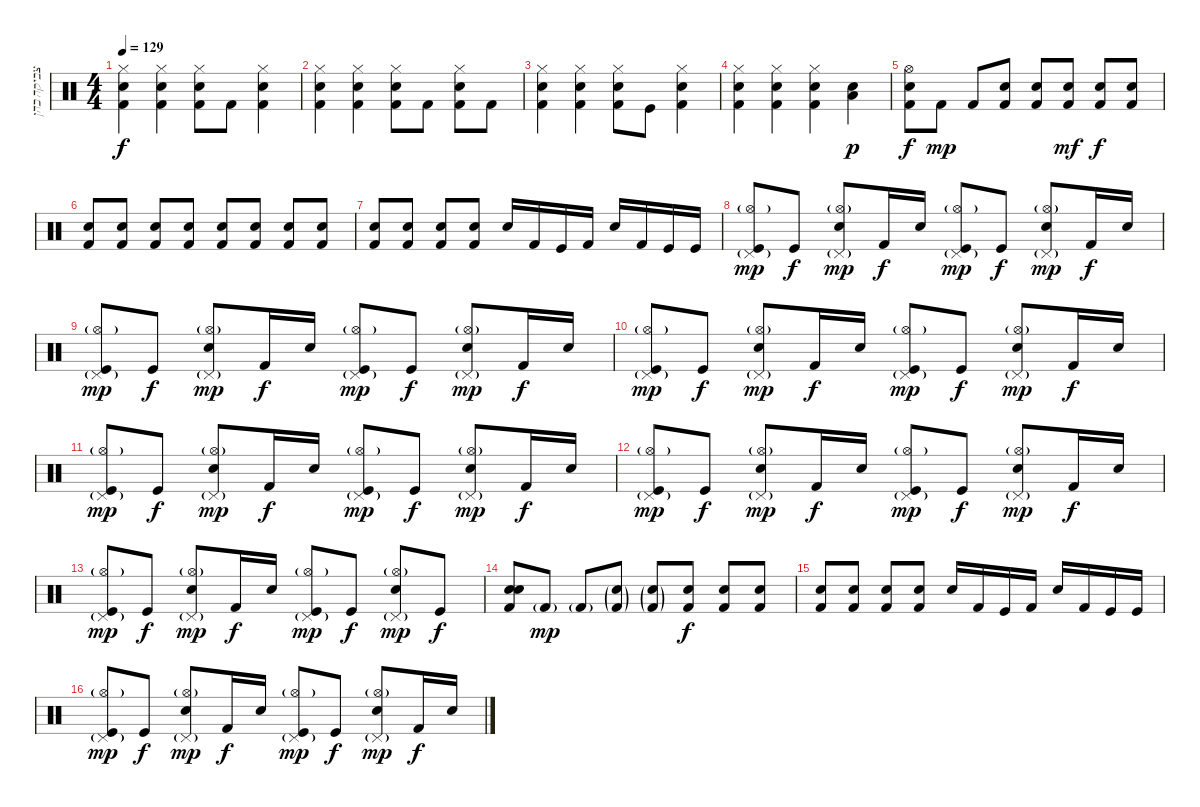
\track ("צביקה כהן - תופים" "צביקה כהן ") {instrument percussion}
\staff {score}
\articulation defaults
\ts (4 4)
\tempo 129
\clef neutral
\ks c
("Hi-Hat (closed)" "Electric Snare (hit)" "Kick (hit) 2").4{dy f} ("Hi-Hat (closed)" "Electric Snare (hit)" "Kick (hit) 2").4 ("Hi-Hat (closed)" "Electric Snare (hit)" "Kick (hit) 2").8 "Kick (hit) 2".8 ("Hi-Hat (closed)" "Electric Snare (hit)" "Kick (hit) 2").4 |
("Hi-Hat (closed)" "Electric Snare (hit)" "Kick (hit) 2").4 ("Hi-Hat (closed)" "Electric Snare (hit)" "Kick (hit) 2").4 ("Hi-Hat (closed)" "Electric Snare (hit)" "Kick (hit) 2").8 "Kick (hit) 2".8 ("Hi-Hat (closed)" "Electric Snare (hit)" "Kick (hit) 2").8 "Kick (hit) 2".8 |
("Hi-Hat (closed)" "Electric Snare (hit)" "Kick (hit) 2").4 ("Hi-Hat (closed)" "Electric Snare (hit)" "Kick (hit) 2").4 ("Hi-Hat (closed)" "Electric Snare (hit)" "Kick (hit) 2").8 "Kick (hit)".8 ("Hi-Hat (closed)" "Electric Snare (hit)" "Kick (hit) 2").4 |
("Hi-Hat (closed)" "Electric Snare (hit)" "Kick (hit) 2").4 ("Hi-Hat (closed)" "Electric Snare (hit)" "Kick (hit) 2").4 ("Hi-Hat (closed)" "Electric Snare (hit)" "Kick (hit) 2").4 ("Low Tom (hit)" "Electric Snare (hit)").4{dy p} |
("Electric Snare (hit)" "Hi-Hat (open)" "Kick (hit) 2").8{dy f} "Kick (hit) 2".8{dy mp} "Kick (hit) 2".8 ("Electric Snare (hit)" "Kick (hit) 2").8 ("Electric Snare (hit)" "Kick (hit) 2").8 ("Electric Snare (hit)" "Kick (hit) 2").8{dy mf} ("Electric Snare (hit)" "Kick (hit) 2").8{dy f} ("Electric Snare (hit)" "Kick (hit) 2").8 |
("Electric Snare (hit)" "Kick (hit) 2").8 ("Electric Snare (hit)" "Kick (hit) 2").8 ("Electric Snare (hit)" "Kick (hit) 2").8 ("Electric Snare (hit)" "Kick (hit) 2").8 ("Electric Snare (hit)" "Kick (hit) 2").8 ("Electric Snare (hit)" "Kick (hit) 2").8 ("Electric Snare (hit)" "Kick (hit) 2").8 ("Electric Snare (hit)" "Kick (hit) 2").8 |
("Electric Snare (hit)" "Kick (hit) 2").8 ("Electric Snare (hit)" "Kick (hit) 2").8 ("Electric Snare (hit)" "Kick (hit) 2").8 ("Electric Snare (hit)" "Kick (hit) 2").8 "Electric Snare (hit)".16 "Kick (hit) 2".16 "Kick (hit)".16 "Kick (hit) 2".16 "Electric Snare (hit)".16 "Kick (hit) 2".16 "Kick (hit)".16 "Kick (hit)".16 |
("Hi-Hat (open)"{g} "Kick (hit)" "Pedal Hi-Hat (hit)"{g}).8{dy mp} "Kick (hit)".8{dy f} ("Hi-Hat (open)"{g} "Electric Snare (hit)" "Pedal Hi-Hat (hit)"{g}).8{dy mp} "Kick (hit) 2".16{dy f} "Electric Snare (hit)".16 ("Hi-Hat (open)"{g} "Kick (hit)" "Pedal Hi-Hat (hit)"{g}).8{dy mp} "Kick (hit)".8{dy f} ("Hi-Hat (open)"{g} "Electric Snare (hit)" "Pedal Hi-Hat (hit)"{g}).8{dy mp} "Kick (hit) 2".16{dy f} "Electric Snare (hit)".16 |
("Hi-Hat (open)"{g} "Kick (hit)" "Pedal Hi-Hat (hit)"{g}).8{dy mp} "Kick (hit)".8{dy f} ("Hi-Hat (open)"{g} "Electric Snare (hit)" "Pedal Hi-Hat (hit)"{g}).8{dy mp} "Kick (hit) 2".16{dy f} "Electric Snare (hit)".16 ("Hi-Hat (open)"{g} "Kick (hit)" "Pedal Hi-Hat (hit)"{g}).8{dy mp} "Kick (hit)".8{dy f} ("Hi-Hat (open)"{g} "Electric Snare (hit)" "Pedal Hi-Hat (hit)"{g}).8{dy mp} "Kick (hit) 2".16{dy f} "Electric Snare (hit)".16 |
("Hi-Hat (open)"{g} "Kick (hit)" "Pedal Hi-Hat (hit)"{g}).8{dy mp} "Kick (hit)".8{dy f} ("Hi-Hat (open)"{g} "Electric Snare (hit)" "Pedal Hi-Hat (hit)"{g}).8{dy mp} "Kick (hit) 2".16{dy f} "Electric Snare (hit)".16 ("Hi-Hat (open)"{g} "Kick (hit)" "Pedal Hi-Hat (hit)"{g}).8{dy mp} "Kick (hit)".8{dy f} ("Hi-Hat (open)"{g} "Electric Snare (hit)" "Pedal Hi-Hat (hit)"{g}).8{dy mp} "Kick (hit) 2".16{dy f} "Electric Snare (hit)".16 |
("Hi-Hat (open)"{g} "Kick (hit)" "Pedal Hi-Hat (hit)"{g}).8{dy mp} "Kick (hit)".8{dy f} ("Hi-Hat (open)"{g} "Electric Snare (hit)" "Pedal Hi-Hat (hit)"{g}).8{dy mp} "Kick (hit) 2".16{dy f} "Electric Snare (hit)".16 ("Hi-Hat (open)"{g} "Kick (hit)" "Pedal Hi-Hat (hit)"{g}).8{dy mp} "Kick (hit)".8{dy f} ("Hi-Hat (open)"{g} "Electric Snare (hit)" "Pedal Hi-Hat (hit)"{g}).8{dy mp} "Kick (hit) 2".16{dy f} "Electric Snare (hit)".16 |
("Hi-Hat (open)"{g} "Kick (hit)" "Pedal Hi-Hat (hit)"{g}).8{dy mp} "Kick (hit)".8{dy f} ("Hi-Hat (open)"{g} "Electric Snare (hit)" "Pedal Hi-Hat (hit)"{g}).8{dy mp} "Kick (hit) 2".16{dy f} "Electric Snare (hit)".16 ("Hi-Hat (open)"{g} "Kick (hit)" "Pedal Hi-Hat (hit)"{g}).8{dy mp} "Kick (hit)".8{dy f} ("Hi-Hat (open)"{g} "Electric Snare (hit)" "Pedal Hi-Hat (hit)"{g}).8{dy mp} "Kick (hit) 2".16{dy f} "Electric Snare (hit)".16 |
("Hi-Hat (open)"{g} "Kick (hit)" "Pedal Hi-Hat (hit)"{g}).8{dy mp} "Kick (hit)".8{dy f} ("Hi-Hat (open)"{g} "Electric Snare (hit)" "Pedal Hi-Hat (hit)"{g}).8{dy mp} "Kick (hit) 2".16{dy f} "Electric Snare (hit)".16 ("Hi-Hat (open)"{g} "Kick (hit)" "Pedal Hi-Hat (hit)"{g}).8{dy mp} "Kick (hit)".8{dy f} ("Hi-Hat (open)"{g} "Electric Snare (hit)" "Pedal Hi-Hat (hit)"{g}).8{dy mp} "Kick (hit)".8{dy f} |
("Electric Snare (hit)" "Snare (hit) 2" "Kick (hit) 2").8 "Kick (hit) 2"{g}.8{dy mp} "Kick (hit) 2"{g}.8 ("Electric Snare (hit)"{g} "Kick (hit) 2"{g}).8 ("Electric Snare (hit)"{g} "Kick (hit) 2"{g}).8 ("Electric Snare (hit)" "Kick (hit) 2").8{dy f} ("Electric Snare (hit)" "Kick (hit) 2").8 ("Electric Snare (hit)" "Kick (hit) 2").8 |
("Electric Snare (hit)" "Kick (hit) 2").8 ("Electric Snare (hit)" "Kick (hit) 2").8 ("Electric Snare (hit)" "Kick (hit) 2").8 ("Electric Snare (hit)" "Kick (hit) 2").8 "Electric Snare (hit)".16 "Kick (hit) 2".16 "Kick (hit)".16 "Kick (hit) 2".16 "Electric Snare (hit)".16 "Kick (hit) 2".16 "Kick (hit)".16 "Kick (hit)".16 |
("Hi-Hat (open)"{g} "Kick (hit)" "Pedal Hi-Hat (hit)"{g}).8{dy mp} "Kick (hit)".8{dy f} ("Hi-Hat (open)"{g} "Electric Snare (hit)" "Pedal Hi-Hat (hit)"{g}).8{dy mp} "Kick (hit) 2".16{dy f} "Electric Snare (hit)".16 ("Hi-Hat (open)"{g} "Kick (hit)" "Pedal Hi-Hat (hit)"{g}).8{dy mp} "Kick (hit)".8{dy f} ("Hi-Hat (open)"{g} "Electric Snare (hit)" "Pedal Hi-Hat (hit)"{g}).8{dy mp} "Kick (hit) 2".16{dy f} "Electric Snare (hit)".16
